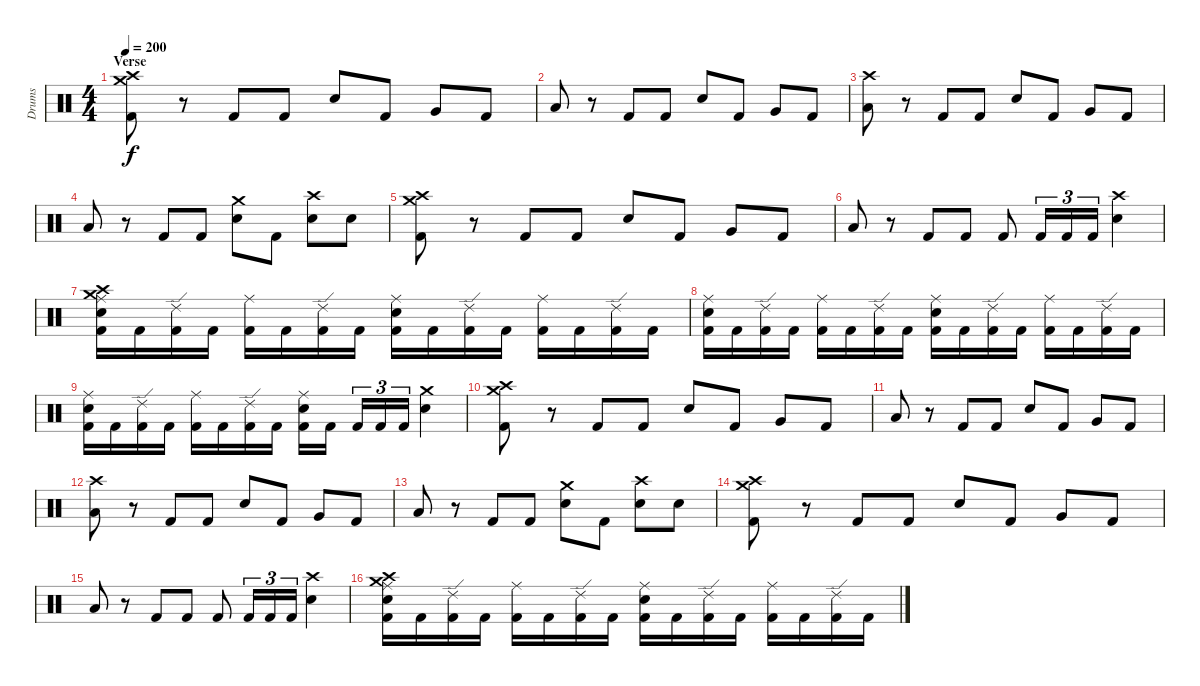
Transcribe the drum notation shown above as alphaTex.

\track ("Drums" "Drums") {instrument percussion}
\staff {score}
\articulation defaults
\ts (4 4)
\section ("" "Verse")
\tempo 200
\clef neutral
\ks c
("Crash high (hit)" "Crash medium (hit)" "Kick (hit) 2").8{dy f} r.8 "Kick (hit) 2".8 "Kick (hit) 2".8 "Electric Snare (hit)".8 "Kick (hit) 2".8 "Very Low Tom (hit)".8 "Kick (hit) 2".8 |
"Low Floor Tom (hit)".8 r.8 "Kick (hit) 2".8 "Kick (hit) 2".8 "Electric Snare (hit)".8 "Kick (hit) 2".8 "Very Low Tom (hit)".8 "Kick (hit) 2".8 |
("Crash high (hit)" "Low Floor Tom (hit)").8 r.8 "Kick (hit) 2".8 "Kick (hit) 2".8 "Electric Snare (hit)".8 "Kick (hit) 2".8 "Very Low Tom (hit)".8 "Kick (hit) 2".8 |
"Low Floor Tom (hit)".8 r.8 "Kick (hit) 2".8 "Kick (hit) 2".8 ("Crash medium (hit)" "Electric Snare (hit)").8 "Kick (hit) 2".8 ("Crash high (hit)" "Electric Snare (hit)").8 "Electric Snare (hit)".8 |
("Crash high (hit)" "Crash medium (hit)" "Kick (hit) 2").8 r.8 "Kick (hit) 2".8 "Kick (hit) 2".8 "Electric Snare (hit)".8 "Kick (hit) 2".8 "Very Low Tom (hit)".8 "Kick (hit) 2".8 |
"Low Floor Tom (hit)".8 r.8 "Kick (hit) 2".8 "Kick (hit) 2".8 "Kick (hit) 2".8 "Kick (hit) 2".16{tu (3 2)} "Kick (hit) 2".16{tu (3 2)} "Kick (hit) 2".16{tu (3 2)} ("Crash high (hit)" "Electric Snare (hit)").4 |
("Crash high (hit)" "Crash medium (hit)" "Ride (middle)" "Electric Snare (hit)" "Kick (hit) 2").16 "Kick (hit) 2".16 ("Ride (edge) 2" "Kick (hit) 2").16 "Kick (hit) 2".16 ("Ride (middle)" "Kick (hit) 2").16 "Kick (hit) 2".16 ("Ride (edge) 2" "Kick (hit) 2").16 "Kick (hit) 2".16 ("Ride (middle)" "Electric Snare (hit)" "Kick (hit) 2").16 "Kick (hit) 2".16 ("Ride (edge) 2" "Kick (hit) 2").16 "Kick (hit) 2".16 ("Ride (middle)" "Kick (hit) 2").16 "Kick (hit) 2".16 ("Ride (edge) 2" "Kick (hit) 2").16 "Kick (hit) 2".16 |
("Ride (middle)" "Electric Snare (hit)" "Kick (hit) 2").16 "Kick (hit) 2".16 ("Ride (edge) 2" "Kick (hit) 2").16 "Kick (hit) 2".16 ("Ride (middle)" "Kick (hit) 2").16 "Kick (hit) 2".16 ("Ride (edge) 2" "Kick (hit) 2").16 "Kick (hit) 2".16 ("Ride (middle)" "Electric Snare (hit)" "Kick (hit) 2").16 "Kick (hit) 2".16 ("Ride (edge) 2" "Kick (hit) 2").16 "Kick (hit) 2".16 ("Ride (middle)" "Kick (hit) 2").16 "Kick (hit) 2".16 ("Ride (edge) 2" "Kick (hit) 2").16 "Kick (hit) 2".16 |
("Ride (middle)" "Electric Snare (hit)" "Kick (hit) 2").16 "Kick (hit) 2".16 ("Ride (edge) 2" "Kick (hit) 2").16 "Kick (hit) 2".16 ("Ride (middle)" "Kick (hit) 2").16 "Kick (hit) 2".16 ("Ride (edge) 2" "Kick (hit) 2").16 "Kick (hit) 2".16 ("Ride (middle)" "Electric Snare (hit)" "Kick (hit) 2").16 "Kick (hit) 2".16{beam splitsecondary} "Kick (hit) 2".16{tu (3 2)} "Kick (hit) 2".16{tu (3 2)} "Kick (hit) 2".16{tu (3 2)} ("Crash medium (hit)" "Electric Snare (hit)").4 |
("Crash high (hit)" "Crash medium (hit)" "Kick (hit) 2").8 r.8 "Kick (hit) 2".8 "Kick (hit) 2".8 "Electric Snare (hit)".8 "Kick (hit) 2".8 "Very Low Tom (hit)".8 "Kick (hit) 2".8 |
"Low Floor Tom (hit)".8 r.8 "Kick (hit) 2".8 "Kick (hit) 2".8 "Electric Snare (hit)".8 "Kick (hit) 2".8 "Very Low Tom (hit)".8 "Kick (hit) 2".8 |
("Crash high (hit)" "Low Floor Tom (hit)").8 r.8 "Kick (hit) 2".8 "Kick (hit) 2".8 "Electric Snare (hit)".8 "Kick (hit) 2".8 "Very Low Tom (hit)".8 "Kick (hit) 2".8 |
"Low Floor Tom (hit)".8 r.8 "Kick (hit) 2".8 "Kick (hit) 2".8 ("Crash medium (hit)" "Electric Snare (hit)").8 "Kick (hit) 2".8 ("Crash high (hit)" "Electric Snare (hit)").8 "Electric Snare (hit)".8 |
("Crash high (hit)" "Crash medium (hit)" "Kick (hit) 2").8 r.8 "Kick (hit) 2".8 "Kick (hit) 2".8 "Electric Snare (hit)".8 "Kick (hit) 2".8 "Very Low Tom (hit)".8 "Kick (hit) 2".8 |
"Low Floor Tom (hit)".8 r.8 "Kick (hit) 2".8 "Kick (hit) 2".8 "Kick (hit) 2".8 "Kick (hit) 2".16{tu (3 2)} "Kick (hit) 2".16{tu (3 2)} "Kick (hit) 2".16{tu (3 2)} ("Crash high (hit)" "Electric Snare (hit)").4 |
("Crash high (hit)" "Crash medium (hit)" "Ride (middle)" "Electric Snare (hit)" "Kick (hit) 2").16 "Kick (hit) 2".16 ("Ride (edge) 2" "Kick (hit) 2").16 "Kick (hit) 2".16 ("Ride (middle)" "Kick (hit) 2").16 "Kick (hit) 2".16 ("Ride (edge) 2" "Kick (hit) 2").16 "Kick (hit) 2".16 ("Ride (middle)" "Electric Snare (hit)" "Kick (hit) 2").16 "Kick (hit) 2".16 ("Ride (edge) 2" "Kick (hit) 2").16 "Kick (hit) 2".16 ("Ride (middle)" "Kick (hit) 2").16 "Kick (hit) 2".16 ("Ride (edge) 2" "Kick (hit) 2").16 "Kick (hit) 2".16
